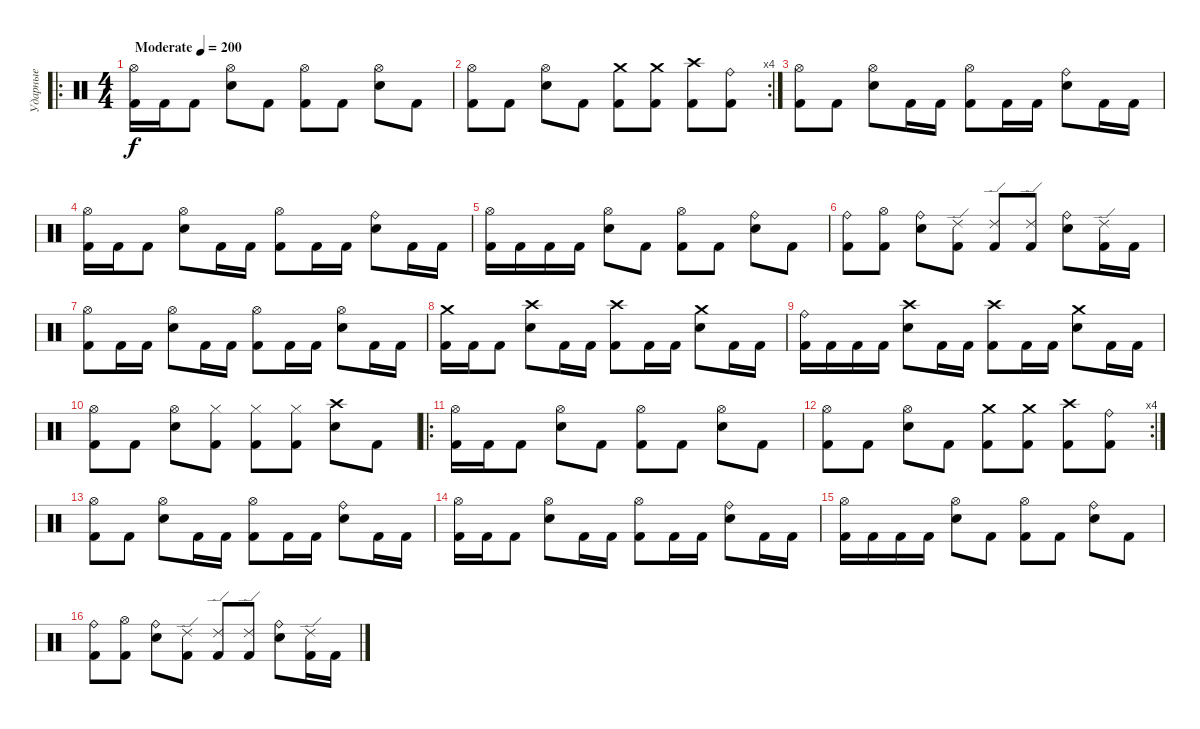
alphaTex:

\track ("Ударные" "Ударные") {instrument percussion}
\staff {score}
\articulation defaults
\ro
\ts (4 4)
\tempo (200 "Moderate")
\clef neutral
\ks c
("Hi-Hat (open)" "Kick (hit) 2").16{dy f} "Kick (hit) 2".16 "Kick (hit) 2".8 ("Hi-Hat (open)" "Electric Snare (hit)").8 "Kick (hit) 2".8 ("Hi-Hat (open)" "Kick (hit) 2").8 "Kick (hit) 2".8 ("Hi-Hat (open)" "Electric Snare (hit)").8 "Kick (hit) 2".8 |
\rc 4
("Hi-Hat (open)" "Kick (hit) 2").8 "Kick (hit) 2".8 ("Hi-Hat (open)" "Electric Snare (hit)").8 "Kick (hit) 2".8 ("Crash medium (hit)" "Kick (hit) 2").8 ("Crash medium (hit)" "Kick (hit) 2").8 ("Crash high (hit)" "Kick (hit) 2").8 ("Ride (bell)" "Kick (hit) 2").8 |
("Hi-Hat (open)" "Kick (hit) 2").8 "Kick (hit) 2".8 ("Hi-Hat (open)" "Electric Snare (hit)").8 "Kick (hit) 2".16 "Kick (hit) 2".16 ("Hi-Hat (open)" "Kick (hit) 2").8 "Kick (hit) 2".16 "Kick (hit) 2".16 ("Ride (bell)" "Electric Snare (hit)").8 "Kick (hit) 2".16 "Kick (hit) 2".16 |
("Hi-Hat (open)" "Kick (hit) 2").16 "Kick (hit) 2".16 "Kick (hit) 2".8 ("Hi-Hat (open)" "Electric Snare (hit)").8 "Kick (hit) 2".16 "Kick (hit) 2".16 ("Hi-Hat (open)" "Kick (hit) 2").8 "Kick (hit) 2".16 "Kick (hit) 2".16 ("Ride (bell)" "Electric Snare (hit)").8 "Kick (hit) 2".16 "Kick (hit) 2".16 |
("Hi-Hat (open)" "Kick (hit) 2").16 "Kick (hit) 2".16 "Kick (hit) 2".16 "Kick (hit) 2".16 ("Hi-Hat (open)" "Electric Snare (hit)").8 "Kick (hit) 2".8 ("Hi-Hat (open)" "Kick (hit) 2").8 "Kick (hit) 2".8 ("Ride (bell)" "Electric Snare (hit)").8 "Kick (hit) 2".8 |
("Ride (bell)" "Kick (hit) 2").8 ("Hi-Hat (open)" "Kick (hit) 2").8 ("Ride (bell)" "Electric Snare (hit)").8 ("Ride (edge) 2" "Kick (hit) 2").8 ("Ride (edge) 2" "Kick (hit) 2").8 ("Ride (edge) 2" "Kick (hit) 2").8 ("Ride (bell)" "Electric Snare (hit)").8 ("Ride (edge) 2" "Kick (hit) 2").16 "Kick (hit) 2".16 |
("Hi-Hat (open)" "Kick (hit) 2").8 "Kick (hit) 2".16 "Kick (hit) 2".16 ("Hi-Hat (open)" "Electric Snare (hit)").8 "Kick (hit) 2".16 "Kick (hit) 2".16 ("Hi-Hat (open)" "Kick (hit) 2").8 "Kick (hit) 2".16 "Kick (hit) 2".16 ("Hi-Hat (open)" "Electric Snare (hit)").8 "Kick (hit) 2".16 "Kick (hit) 2".16 |
("Crash medium (hit)" "Kick (hit) 2").16 "Kick (hit) 2".16 "Kick (hit) 2".8 ("Crash high (hit)" "Electric Snare (hit)").8 "Kick (hit) 2".16 "Kick (hit) 2".16 ("Crash high (hit)" "Kick (hit) 2").8 "Kick (hit) 2".16 "Kick (hit) 2".16 ("Crash medium (hit)" "Electric Snare (hit)").8 "Kick (hit) 2".16 "Kick (hit) 2".16 |
("Ride (bell)" "Kick (hit) 2").16 "Kick (hit) 2".16 "Kick (hit) 2".16 "Kick (hit) 2".16 ("Crash high (hit)" "Electric Snare (hit)").8 "Kick (hit) 2".16 "Kick (hit) 2".16 ("Crash high (hit)" "Kick (hit) 2").8 "Kick (hit) 2".16 "Kick (hit) 2".16 ("Crash medium (hit)" "Electric Snare (hit)").8 "Kick (hit) 2".16 "Kick (hit) 2".16 |
("Hi-Hat (open)" "Kick (hit) 2").8 "Kick (hit) 2".8 ("Hi-Hat (open)" "Electric Snare (hit)").8 ("Hi-Hat (closed)" "Kick (hit) 2").8 ("Hi-Hat (closed)" "Kick (hit) 2").8 ("Hi-Hat (closed)" "Kick (hit) 2").8 ("Crash high (hit)" "Electric Snare (hit)").8 "Kick (hit) 2".8 |
\ro
("Hi-Hat (open)" "Kick (hit) 2").16 "Kick (hit) 2".16 "Kick (hit) 2".8 ("Hi-Hat (open)" "Electric Snare (hit)").8 "Kick (hit) 2".8 ("Hi-Hat (open)" "Kick (hit) 2").8 "Kick (hit) 2".8 ("Hi-Hat (open)" "Electric Snare (hit)").8 "Kick (hit) 2".8 |
\rc 4
("Hi-Hat (open)" "Kick (hit) 2").8 "Kick (hit) 2".8 ("Hi-Hat (open)" "Electric Snare (hit)").8 "Kick (hit) 2".8 ("Crash medium (hit)" "Kick (hit) 2").8 ("Crash medium (hit)" "Kick (hit) 2").8 ("Crash high (hit)" "Kick (hit) 2").8 ("Ride (bell)" "Kick (hit) 2").8 |
("Hi-Hat (open)" "Kick (hit) 2").8 "Kick (hit) 2".8 ("Hi-Hat (open)" "Electric Snare (hit)").8 "Kick (hit) 2".16 "Kick (hit) 2".16 ("Hi-Hat (open)" "Kick (hit) 2").8 "Kick (hit) 2".16 "Kick (hit) 2".16 ("Ride (bell)" "Electric Snare (hit)").8 "Kick (hit) 2".16 "Kick (hit) 2".16 |
("Hi-Hat (open)" "Kick (hit) 2").16 "Kick (hit) 2".16 "Kick (hit) 2".8 ("Hi-Hat (open)" "Electric Snare (hit)").8 "Kick (hit) 2".16 "Kick (hit) 2".16 ("Hi-Hat (open)" "Kick (hit) 2").8 "Kick (hit) 2".16 "Kick (hit) 2".16 ("Ride (bell)" "Electric Snare (hit)").8 "Kick (hit) 2".16 "Kick (hit) 2".16 |
("Hi-Hat (open)" "Kick (hit) 2").16 "Kick (hit) 2".16 "Kick (hit) 2".16 "Kick (hit) 2".16 ("Hi-Hat (open)" "Electric Snare (hit)").8 "Kick (hit) 2".8 ("Hi-Hat (open)" "Kick (hit) 2").8 "Kick (hit) 2".8 ("Ride (bell)" "Electric Snare (hit)").8 "Kick (hit) 2".8 |
("Ride (bell)" "Kick (hit) 2").8 ("Hi-Hat (open)" "Kick (hit) 2").8 ("Ride (bell)" "Electric Snare (hit)").8 ("Ride (edge) 2" "Kick (hit) 2").8 ("Ride (edge) 2" "Kick (hit) 2").8 ("Ride (edge) 2" "Kick (hit) 2").8 ("Ride (bell)" "Electric Snare (hit)").8 ("Ride (edge) 2" "Kick (hit) 2").16 "Kick (hit) 2".16
